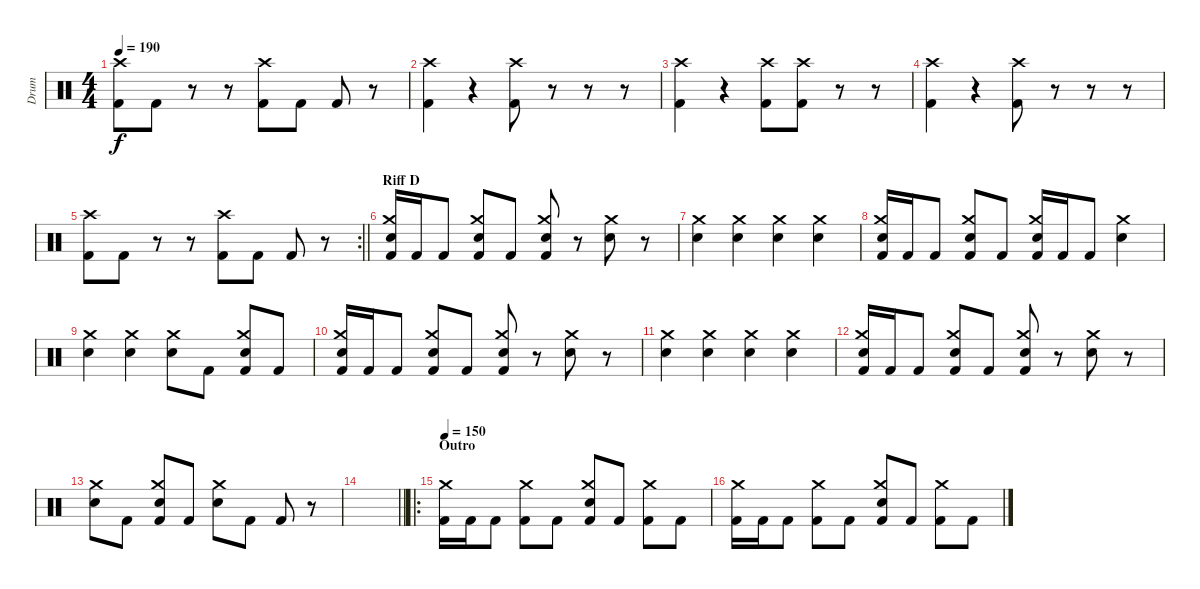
\track ("Drum" "Drum") {instrument percussion}
\staff {score}
\articulation defaults
\ts (4 4)
\tempo 190
\clef neutral
\ks c
("Crash high (hit)" "Kick (hit) 2").8{dy f} "Kick (hit) 2".8 r.8 r.8 ("Crash high (hit)" "Kick (hit) 2").8 "Kick (hit) 2".8 "Kick (hit) 2".8 r.8 |
("Crash high (hit)" "Kick (hit) 2").4 r.4 ("Crash high (hit)" "Kick (hit) 2").8 r.8 r.8 r.8 |
("Crash high (hit)" "Kick (hit) 2").4 r.4 ("Crash high (hit)" "Kick (hit) 2").8 ("Crash high (hit)" "Kick (hit) 2").8 r.8 r.8 |
("Crash high (hit)" "Kick (hit) 2").4 r.4 ("Crash high (hit)" "Kick (hit) 2").8 r.8 r.8 r.8 |
\rc 2
\barLineRight lightlight
("Crash high (hit)" "Kick (hit) 2").8 "Kick (hit) 2".8 r.8 r.8 ("Crash high (hit)" "Kick (hit) 2").8 "Kick (hit) 2".8 "Kick (hit) 2".8 r.8 |
\section ("" "Riff D")
("Crash medium (hit)" "Electric Snare (hit)" "Kick (hit) 2").16 "Kick (hit) 2".16 "Kick (hit) 2".8 ("Crash medium (hit)" "Electric Snare (hit)" "Kick (hit) 2").8 "Kick (hit) 2".8 ("Crash medium (hit)" "Electric Snare (hit)" "Kick (hit) 2").8 r.8 ("Crash medium (hit)" "Electric Snare (hit)").8 r.8 |
("Crash medium (hit)" "Electric Snare (hit)").4 ("Crash medium (hit)" "Electric Snare (hit)").4 ("Crash medium (hit)" "Electric Snare (hit)").4 ("Crash medium (hit)" "Electric Snare (hit)").4 |
("Crash medium (hit)" "Electric Snare (hit)" "Kick (hit) 2").16 "Kick (hit) 2".16 "Kick (hit) 2".8 ("Crash medium (hit)" "Electric Snare (hit)" "Kick (hit) 2").8 "Kick (hit) 2".8 ("Crash medium (hit)" "Electric Snare (hit)" "Kick (hit) 2").16 "Kick (hit) 2".16 "Kick (hit) 2".8 ("Crash medium (hit)" "Electric Snare (hit)").4 |
("Crash medium (hit)" "Electric Snare (hit)").4 ("Crash medium (hit)" "Electric Snare (hit)").4 ("Crash medium (hit)" "Electric Snare (hit)").8 "Kick (hit) 2".8 ("Crash medium (hit)" "Electric Snare (hit)" "Kick (hit) 2").8 "Kick (hit) 2".8 |
("Crash medium (hit)" "Electric Snare (hit)" "Kick (hit) 2").16 "Kick (hit) 2".16 "Kick (hit) 2".8 ("Crash medium (hit)" "Electric Snare (hit)" "Kick (hit) 2").8 "Kick (hit) 2".8 ("Crash medium (hit)" "Electric Snare (hit)" "Kick (hit) 2").8 r.8 ("Crash medium (hit)" "Electric Snare (hit)").8 r.8 |
("Crash medium (hit)" "Electric Snare (hit)").4 ("Crash medium (hit)" "Electric Snare (hit)").4 ("Crash medium (hit)" "Electric Snare (hit)").4 ("Crash medium (hit)" "Electric Snare (hit)").4 |
("Crash medium (hit)" "Electric Snare (hit)" "Kick (hit) 2").16 "Kick (hit) 2".16 "Kick (hit) 2".8 ("Crash medium (hit)" "Electric Snare (hit)" "Kick (hit) 2").8 "Kick (hit) 2".8 ("Crash medium (hit)" "Electric Snare (hit)" "Kick (hit) 2").8 r.8 ("Crash medium (hit)" "Electric Snare (hit)").8 r.8 |
("Crash medium (hit)" "Electric Snare (hit)").8 "Kick (hit) 2".8 ("Crash medium (hit)" "Electric Snare (hit)" "Kick (hit) 2").8 "Kick (hit) 2".8 ("Crash medium (hit)" "Electric Snare (hit)").8 "Kick (hit) 2".8 "Kick (hit) 2".8 r.8 |
\barLineRight lightlight
|
\ro
\section ("" "Outro")
\tempo 150
("Crash medium (hit)" "Kick (hit) 2").16 "Kick (hit) 2".16 "Kick (hit) 2".8 ("Crash medium (hit)" "Kick (hit) 2").8 "Kick (hit) 2".8 ("Crash medium (hit)" "Electric Snare (hit)" "Kick (hit) 2").8 "Kick (hit) 2".8 ("Crash medium (hit)" "Kick (hit) 2").8 "Kick (hit) 2".8 |
("Crash medium (hit)" "Kick (hit) 2").16 "Kick (hit) 2".16 "Kick (hit) 2".8 ("Crash medium (hit)" "Kick (hit) 2").8 "Kick (hit) 2".8 ("Crash medium (hit)" "Electric Snare (hit)" "Kick (hit) 2").8 "Kick (hit) 2".8 ("Crash medium (hit)" "Kick (hit) 2").8 "Kick (hit) 2".8
